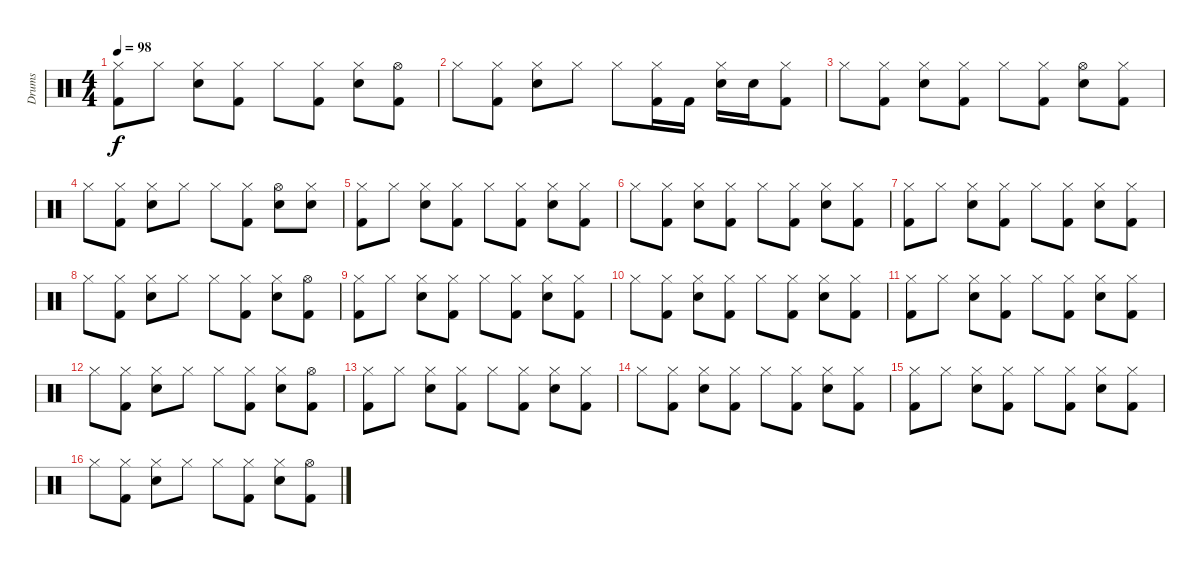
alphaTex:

\track ("Drums" "Drums") {instrument percussion}
\staff {score}
\articulation defaults
\ts (4 4)
\tempo 98
\clef neutral
\ks c
("Hi-Hat (closed)" "Kick (hit) 2").8{dy f} "Hi-Hat (closed)".8 ("Hi-Hat (closed)" "Electric Snare (hit)").8 ("Hi-Hat (closed)" "Kick (hit) 2").8 "Hi-Hat (closed)".8 ("Hi-Hat (closed)" "Kick (hit) 2").8 ("Hi-Hat (closed)" "Electric Snare (hit)").8 ("Hi-Hat (open)" "Kick (hit) 2").8 |
"Hi-Hat (closed)".8 ("Hi-Hat (closed)" "Kick (hit) 2").8 ("Hi-Hat (closed)" "Electric Snare (hit)").8 "Hi-Hat (closed)".8 "Hi-Hat (closed)".8 ("Hi-Hat (closed)" "Kick (hit) 2").16 "Kick (hit) 2".16 ("Hi-Hat (closed)" "Electric Snare (hit)").16 "Electric Snare (hit)".16 ("Hi-Hat (closed)" "Kick (hit) 2").8 |
"Hi-Hat (closed)".8 ("Hi-Hat (closed)" "Kick (hit) 2").8 ("Hi-Hat (closed)" "Electric Snare (hit)").8 ("Hi-Hat (closed)" "Kick (hit) 2").8 "Hi-Hat (closed)".8 ("Hi-Hat (closed)" "Kick (hit) 2").8 ("Hi-Hat (open)" "Electric Snare (hit)").8 ("Hi-Hat (closed)" "Kick (hit) 2").8 |
"Hi-Hat (closed)".8 ("Hi-Hat (closed)" "Kick (hit) 2").8 ("Hi-Hat (closed)" "Electric Snare (hit)").8 "Hi-Hat (closed)".8 "Hi-Hat (closed)".8 ("Hi-Hat (closed)" "Kick (hit) 2").8 ("Hi-Hat (open)" "Electric Snare (hit)").8 ("Hi-Hat (closed)" "Electric Snare (hit)").8 |
("Hi-Hat (closed)" "Kick (hit) 2").8 "Hi-Hat (closed)".8 ("Hi-Hat (closed)" "Electric Snare (hit)").8 ("Hi-Hat (closed)" "Kick (hit) 2").8 "Hi-Hat (closed)".8 ("Hi-Hat (closed)" "Kick (hit) 2").8 ("Hi-Hat (closed)" "Electric Snare (hit)").8 ("Hi-Hat (closed)" "Kick (hit) 2").8 |
"Hi-Hat (closed)".8 ("Hi-Hat (closed)" "Kick (hit) 2").8 ("Hi-Hat (closed)" "Electric Snare (hit)").8 ("Hi-Hat (closed)" "Kick (hit) 2").8 "Hi-Hat (closed)".8 ("Hi-Hat (closed)" "Kick (hit) 2").8 ("Hi-Hat (closed)" "Electric Snare (hit)").8 ("Hi-Hat (closed)" "Kick (hit) 2").8 |
("Hi-Hat (closed)" "Kick (hit) 2").8 "Hi-Hat (closed)".8 ("Hi-Hat (closed)" "Electric Snare (hit)").8 ("Hi-Hat (closed)" "Kick (hit) 2").8 "Hi-Hat (closed)".8 ("Hi-Hat (closed)" "Kick (hit) 2").8 ("Hi-Hat (closed)" "Electric Snare (hit)").8 ("Hi-Hat (closed)" "Kick (hit) 2").8 |
"Hi-Hat (closed)".8 ("Hi-Hat (closed)" "Kick (hit) 2").8 ("Hi-Hat (closed)" "Electric Snare (hit)").8 "Hi-Hat (closed)".8 "Hi-Hat (closed)".8 ("Hi-Hat (closed)" "Kick (hit) 2").8 ("Hi-Hat (closed)" "Electric Snare (hit)").8 ("Hi-Hat (open)" "Kick (hit) 2").8 |
("Hi-Hat (closed)" "Kick (hit) 2").8 "Hi-Hat (closed)".8 ("Hi-Hat (closed)" "Electric Snare (hit)").8 ("Hi-Hat (closed)" "Kick (hit) 2").8 "Hi-Hat (closed)".8 ("Hi-Hat (closed)" "Kick (hit) 2").8 ("Hi-Hat (closed)" "Electric Snare (hit)").8 ("Hi-Hat (closed)" "Kick (hit) 2").8 |
"Hi-Hat (closed)".8 ("Hi-Hat (closed)" "Kick (hit) 2").8 ("Hi-Hat (closed)" "Electric Snare (hit)").8 ("Hi-Hat (closed)" "Kick (hit) 2").8 "Hi-Hat (closed)".8 ("Hi-Hat (closed)" "Kick (hit) 2").8 ("Hi-Hat (closed)" "Electric Snare (hit)").8 ("Hi-Hat (closed)" "Kick (hit) 2").8 |
("Hi-Hat (closed)" "Kick (hit) 2").8 "Hi-Hat (closed)".8 ("Hi-Hat (closed)" "Electric Snare (hit)").8 ("Hi-Hat (closed)" "Kick (hit) 2").8 "Hi-Hat (closed)".8 ("Hi-Hat (closed)" "Kick (hit) 2").8 ("Hi-Hat (closed)" "Electric Snare (hit)").8 ("Hi-Hat (closed)" "Kick (hit) 2").8 |
"Hi-Hat (closed)".8 ("Hi-Hat (closed)" "Kick (hit) 2").8 ("Hi-Hat (closed)" "Electric Snare (hit)").8 "Hi-Hat (closed)".8 "Hi-Hat (closed)".8 ("Hi-Hat (closed)" "Kick (hit) 2").8 ("Hi-Hat (closed)" "Electric Snare (hit)").8 ("Hi-Hat (open)" "Kick (hit) 2").8 |
("Hi-Hat (closed)" "Kick (hit) 2").8 "Hi-Hat (closed)".8 ("Hi-Hat (closed)" "Electric Snare (hit)").8 ("Hi-Hat (closed)" "Kick (hit) 2").8 "Hi-Hat (closed)".8 ("Hi-Hat (closed)" "Kick (hit) 2").8 ("Hi-Hat (closed)" "Electric Snare (hit)").8 ("Hi-Hat (closed)" "Kick (hit) 2").8 |
"Hi-Hat (closed)".8 ("Hi-Hat (closed)" "Kick (hit) 2").8 ("Hi-Hat (closed)" "Electric Snare (hit)").8 ("Hi-Hat (closed)" "Kick (hit) 2").8 "Hi-Hat (closed)".8 ("Hi-Hat (closed)" "Kick (hit) 2").8 ("Hi-Hat (closed)" "Electric Snare (hit)").8 ("Hi-Hat (closed)" "Kick (hit) 2").8 |
("Hi-Hat (closed)" "Kick (hit) 2").8 "Hi-Hat (closed)".8 ("Hi-Hat (closed)" "Electric Snare (hit)").8 ("Hi-Hat (closed)" "Kick (hit) 2").8 "Hi-Hat (closed)".8 ("Hi-Hat (closed)" "Kick (hit) 2").8 ("Hi-Hat (closed)" "Electric Snare (hit)").8 ("Hi-Hat (closed)" "Kick (hit) 2").8 |
"Hi-Hat (closed)".8 ("Hi-Hat (closed)" "Kick (hit) 2").8 ("Hi-Hat (closed)" "Electric Snare (hit)").8 "Hi-Hat (closed)".8 "Hi-Hat (closed)".8 ("Hi-Hat (closed)" "Kick (hit) 2").8 ("Hi-Hat (closed)" "Electric Snare (hit)").8 ("Hi-Hat (open)" "Kick (hit) 2").8
